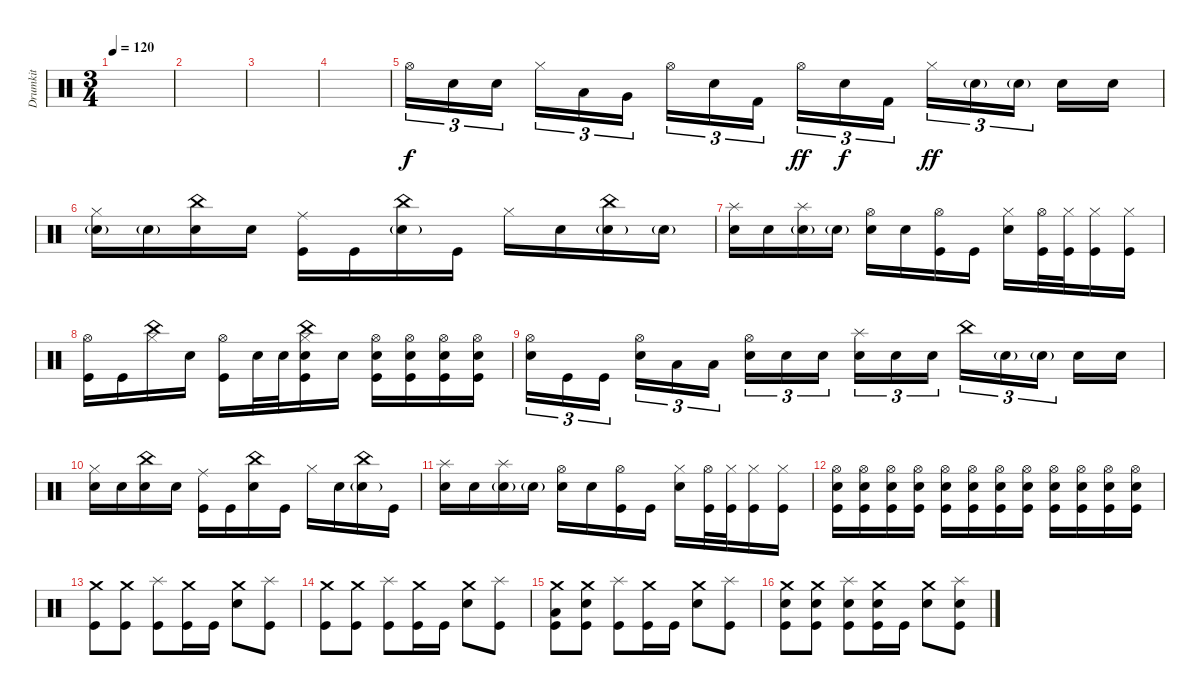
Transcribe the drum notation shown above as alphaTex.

\track ("Drumkit" "Drumkit") {instrument percussion}
\staff {score}
\articulation defaults
\ts (3 4)
\tempo 120
\clef neutral
\ks c
|
|
|
|
"Hi-Hat (open)".16{tu (3 2)} "Electric Snare (hit)".16{tu (3 2)} "Electric Snare (hit)".16{tu (3 2) beam splitsecondary} "Hi-Hat (closed)".16{tu (3 2)} "Low Tom (hit)".16{tu (3 2)} "Very Low Tom (hit)".16{tu (3 2)} "Hi-Hat (open)".16{tu (3 2)} "Electric Snare (hit)".16{tu (3 2) dy f} "Kick (hit) 2".16{tu (3 2) beam splitsecondary} "Hi-Hat (open)".16{tu (3 2) dy ff} "Electric Snare (hit)".16{tu (3 2) dy f} "Kick (hit) 2".16{tu (3 2)} "Hi-Hat (closed)".16{tu (3 2) dy ff} "Electric Snare (hit)"{g}.16{tu (3 2)} "Electric Snare (hit)"{g}.16{tu (3 2) beam splitsecondary} "Electric Snare (hit)".16 "Electric Snare (hit)".16 |
("Hi-Hat (closed)" "Snare (hit) 2"{g}).16 "Snare (hit) 2"{g}.16 ("Snare (hit) 2" "China (hit)").16 "Snare (hit) 2".16 ("Ride (middle)" "Kick (hit)").16 "Kick (hit)".16 ("Snare (hit) 2"{g} "China (hit)").16 "Kick (hit)".16 "Hi-Hat (closed)".16 "Snare (hit) 2".16 ("Snare (hit) 2"{g} "China (hit)").16 "Snare (hit) 2"{g}.16 |
("Snare (hit) 2" "Splash (hit)").16 "Snare (hit) 2".16 ("Snare (hit) 2"{g} "Splash (hit)").16 "Snare (hit) 2"{g}.16 ("Snare (hit) 2" "Hi-Hat (open)").16 "Snare (hit) 2".16 ("Kick (hit)" "Hi-Hat (open)").16 "Kick (hit)".16 ("Hi-Hat (closed)" "Snare (hit) 2").16 ("Hi-Hat (open)" "Kick (hit)").32 ("Hi-Hat (closed)" "Kick (hit)").32 ("Hi-Hat (closed)" "Kick (hit)").16 ("Hi-Hat (closed)" "Kick (hit)").16 |
("Hi-Hat (open)" "Kick (hit)").16 "Kick (hit)".16 ("Hi-Hat (closed)" "China (hit)").16 "Snare (hit) 2".16 ("Hi-Hat (open)" "Kick (hit)").16 "Snare (hit) 2".32 "Snare (hit) 2".32 ("Snare (hit) 2" "Kick (hit)" "Hi-Hat (closed)" "China (hit)").16 "Snare (hit) 2".16 ("Hi-Hat (open)" "Snare (hit) 2" "Kick (hit)").16 ("Snare (hit) 2" "Hi-Hat (open)" "Kick (hit)").16 ("Hi-Hat (open)" "Snare (hit) 2" "Kick (hit)").16 ("Snare (hit) 2" "Hi-Hat (open)" "Kick (hit)").16 |
("Hi-Hat (open)" "Snare (hit) 2").16{tu (3 2)} "Kick (hit)".16{tu (3 2)} "Kick (hit)".16{tu (3 2) beam splitsecondary} ("Hi-Hat (open)" "Snare (hit) 2").16{tu (3 2)} "Low Tom (hit)".16{tu (3 2)} "Low Tom (hit)".16{tu (3 2)} ("Hi-Hat (open)" "Snare (hit) 2").16{tu (3 2)} "Snare (hit) 2".16{tu (3 2)} "Snare (hit) 2".16{tu (3 2) beam splitsecondary} ("Snare (hit) 2" "Splash (hit)").16{tu (3 2)} "Snare (hit) 2".16{tu (3 2)} "Snare (hit) 2".16{tu (3 2)} "China (hit)".16{tu (3 2)} "Snare (hit) 2"{g}.16{tu (3 2)} "Snare (hit) 2"{g}.16{tu (3 2) beam splitsecondary} "Snare (hit) 2".16 "Snare (hit) 2".16 |
("Hi-Hat (closed)" "Snare (hit) 2").16 "Snare (hit) 2".16 ("Snare (hit) 2" "China (hit)").16 "Snare (hit) 2".16 ("Ride (middle)" "Kick (hit)").16 "Kick (hit)".16 ("Snare (hit) 2" "China (hit)").16 "Kick (hit)".16 "Hi-Hat (closed)".16 "Snare (hit) 2".16 ("Snare (hit) 2"{g} "China (hit)").16 "Kick (hit)".16 |
("Snare (hit) 2" "Splash (hit)").16 "Snare (hit) 2".16 ("Snare (hit) 2"{g} "Splash (hit)").16 "Snare (hit) 2"{g}.16 ("Snare (hit) 2" "Hi-Hat (open)").16 "Snare (hit) 2".16 ("Kick (hit)" "Hi-Hat (open)").16 "Kick (hit)".16 ("Hi-Hat (closed)" "Snare (hit) 2").16 ("Hi-Hat (open)" "Kick (hit)").32 ("Hi-Hat (closed)" "Kick (hit)").32 ("Hi-Hat (closed)" "Kick (hit)").16 ("Hi-Hat (closed)" "Kick (hit)").16 |
("Hi-Hat (open)" "Snare (hit) 2" "Kick (hit)").16 ("Snare (hit) 2" "Hi-Hat (open)" "Kick (hit)").16 ("Hi-Hat (open)" "Snare (hit) 2" "Kick (hit)").16 ("Snare (hit) 2" "Hi-Hat (open)" "Kick (hit)").16 ("Hi-Hat (open)" "Snare (hit) 2" "Kick (hit)").16 ("Snare (hit) 2" "Hi-Hat (open)" "Kick (hit)").16 ("Hi-Hat (open)" "Snare (hit) 2" "Kick (hit)").16 ("Snare (hit) 2" "Hi-Hat (open)" "Kick (hit)").16 ("Hi-Hat (open)" "Snare (hit) 2" "Kick (hit)").16 ("Snare (hit) 2" "Hi-Hat (open)" "Kick (hit)").16 ("Hi-Hat (open)" "Snare (hit) 2" "Kick (hit)").16 ("Snare (hit) 2" "Hi-Hat (open)" "Kick (hit)").16 |
("Crash medium (hit)" "Kick (hit)").8 ("Kick (hit)" "Crash medium (hit)").8 ("Kick (hit)" "Splash (hit)").8 ("Crash medium (hit)" "Kick (hit)").16 "Kick (hit)".16 ("Crash medium (hit)" "Snare (hit) 2").8 ("Kick (hit)" "Splash (hit)").8 |
("Crash medium (hit)" "Kick (hit)").8 ("Kick (hit)" "Crash medium (hit)").8 ("Kick (hit)" "Splash (hit)").8 ("Crash medium (hit)" "Kick (hit)").16 "Kick (hit)".16 ("Crash medium (hit)" "Snare (hit) 2").8 ("Kick (hit)" "Splash (hit)").8 |
("Crash medium (hit)" "Kick (hit)" "Low Tom (hit)").8 ("Kick (hit)" "Crash medium (hit)" "Snare (hit) 2").8 ("Kick (hit)" "Splash (hit)").8 ("Crash medium (hit)" "Kick (hit)").16 "Kick (hit)".16 ("Crash medium (hit)" "Snare (hit) 2").8 ("Kick (hit)" "Splash (hit)").8 |
("Crash medium (hit)" "Kick (hit)" "Snare (hit) 2").8 ("Kick (hit)" "Crash medium (hit)" "Snare (hit) 2").8 ("Kick (hit)" "Splash (hit)" "Snare (hit) 2").8 ("Crash medium (hit)" "Kick (hit)" "Snare (hit) 2").16 "Kick (hit)".16 ("Crash medium (hit)" "Snare (hit) 2").8 ("Kick (hit)" "Splash (hit)" "Snare (hit) 2").8
